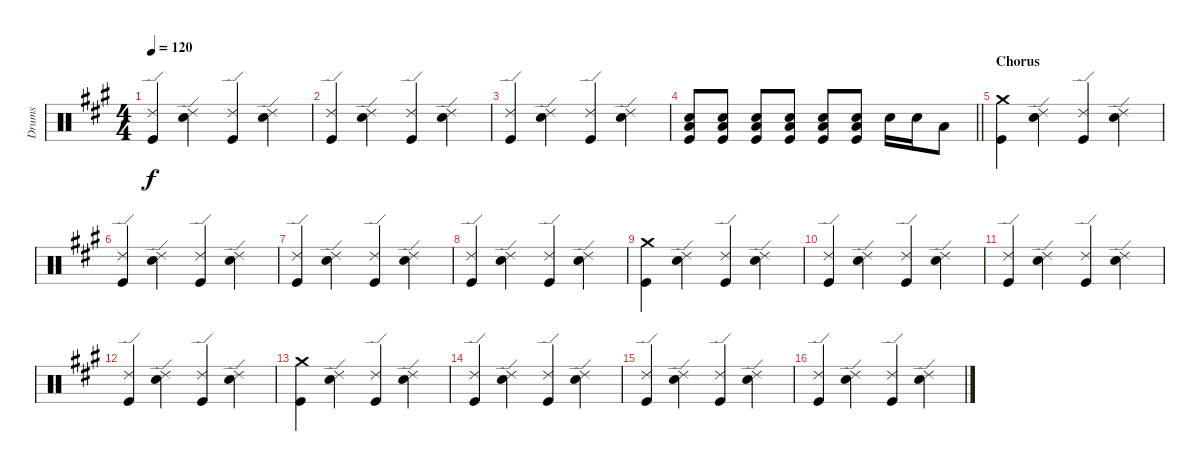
\track ("Drums" "Drums") {instrument percussion}
\staff {score}
\articulation defaults
\ts (4 4)
\tempo 120
\clef neutral
\ks f#minor
("Ride (edge) 2" "Kick (hit)").4{dy f} ("Ride (edge) 2" "Electric Snare (hit)").4 ("Ride (edge) 2" "Kick (hit)").4 ("Ride (edge) 2" "Electric Snare (hit)").4 |
("Ride (edge) 2" "Kick (hit)").4 ("Ride (edge) 2" "Electric Snare (hit)").4 ("Ride (edge) 2" "Kick (hit)").4 ("Ride (edge) 2" "Electric Snare (hit)").4 |
("Ride (edge) 2" "Kick (hit)").4 ("Ride (edge) 2" "Electric Snare (hit)").4 ("Ride (edge) 2" "Kick (hit)").4 ("Ride (edge) 2" "Electric Snare (hit)").4 |
\barLineRight lightlight
("Electric Snare (hit)" "Low Tom (hit)" "Kick (hit)").8 ("Electric Snare (hit)" "Low Tom (hit)" "Kick (hit)").8 ("Electric Snare (hit)" "Low Tom (hit)" "Kick (hit)").8 ("Electric Snare (hit)" "Low Tom (hit)" "Kick (hit)").8 ("Electric Snare (hit)" "Low Tom (hit)" "Kick (hit)").8 ("Electric Snare (hit)" "Low Tom (hit)" "Kick (hit)").8 "Electric Snare (hit)".16 "Electric Snare (hit)".16 "Low Tom (hit)".8 |
\section ("" "Chorus")
("Crash medium (hit)" "Kick (hit)").4 ("Ride (edge) 2" "Electric Snare (hit)").4 ("Ride (edge) 2" "Kick (hit)").4 ("Ride (edge) 2" "Electric Snare (hit)").4 |
("Ride (edge) 2" "Kick (hit)").4 ("Ride (edge) 2" "Electric Snare (hit)").4 ("Ride (edge) 2" "Kick (hit)").4 ("Ride (edge) 2" "Electric Snare (hit)").4 |
("Ride (edge) 2" "Kick (hit)").4 ("Ride (edge) 2" "Electric Snare (hit)").4 ("Ride (edge) 2" "Kick (hit)").4 ("Ride (edge) 2" "Electric Snare (hit)").4 |
("Ride (edge) 2" "Kick (hit)").4 ("Ride (edge) 2" "Electric Snare (hit)").4 ("Ride (edge) 2" "Kick (hit)").4 ("Ride (edge) 2" "Electric Snare (hit)").4 |
("Crash medium (hit)" "Kick (hit)").4 ("Ride (edge) 2" "Electric Snare (hit)").4 ("Ride (edge) 2" "Kick (hit)").4 ("Ride (edge) 2" "Electric Snare (hit)").4 |
("Ride (edge) 2" "Kick (hit)").4 ("Ride (edge) 2" "Electric Snare (hit)").4 ("Ride (edge) 2" "Kick (hit)").4 ("Ride (edge) 2" "Electric Snare (hit)").4 |
("Ride (edge) 2" "Kick (hit)").4 ("Ride (edge) 2" "Electric Snare (hit)").4 ("Ride (edge) 2" "Kick (hit)").4 ("Ride (edge) 2" "Electric Snare (hit)").4 |
("Ride (edge) 2" "Kick (hit)").4 ("Ride (edge) 2" "Electric Snare (hit)").4 ("Ride (edge) 2" "Kick (hit)").4 ("Ride (edge) 2" "Electric Snare (hit)").4 |
("Crash medium (hit)" "Kick (hit)").4 ("Ride (edge) 2" "Electric Snare (hit)").4 ("Ride (edge) 2" "Kick (hit)").4 ("Ride (edge) 2" "Electric Snare (hit)").4 |
("Ride (edge) 2" "Kick (hit)").4 ("Ride (edge) 2" "Electric Snare (hit)").4 ("Ride (edge) 2" "Kick (hit)").4 ("Ride (edge) 2" "Electric Snare (hit)").4 |
("Ride (edge) 2" "Kick (hit)").4 ("Ride (edge) 2" "Electric Snare (hit)").4 ("Ride (edge) 2" "Kick (hit)").4 ("Ride (edge) 2" "Electric Snare (hit)").4 |
("Ride (edge) 2" "Kick (hit)").4 ("Ride (edge) 2" "Electric Snare (hit)").4 ("Ride (edge) 2" "Kick (hit)").4 ("Ride (edge) 2" "Electric Snare (hit)").4
